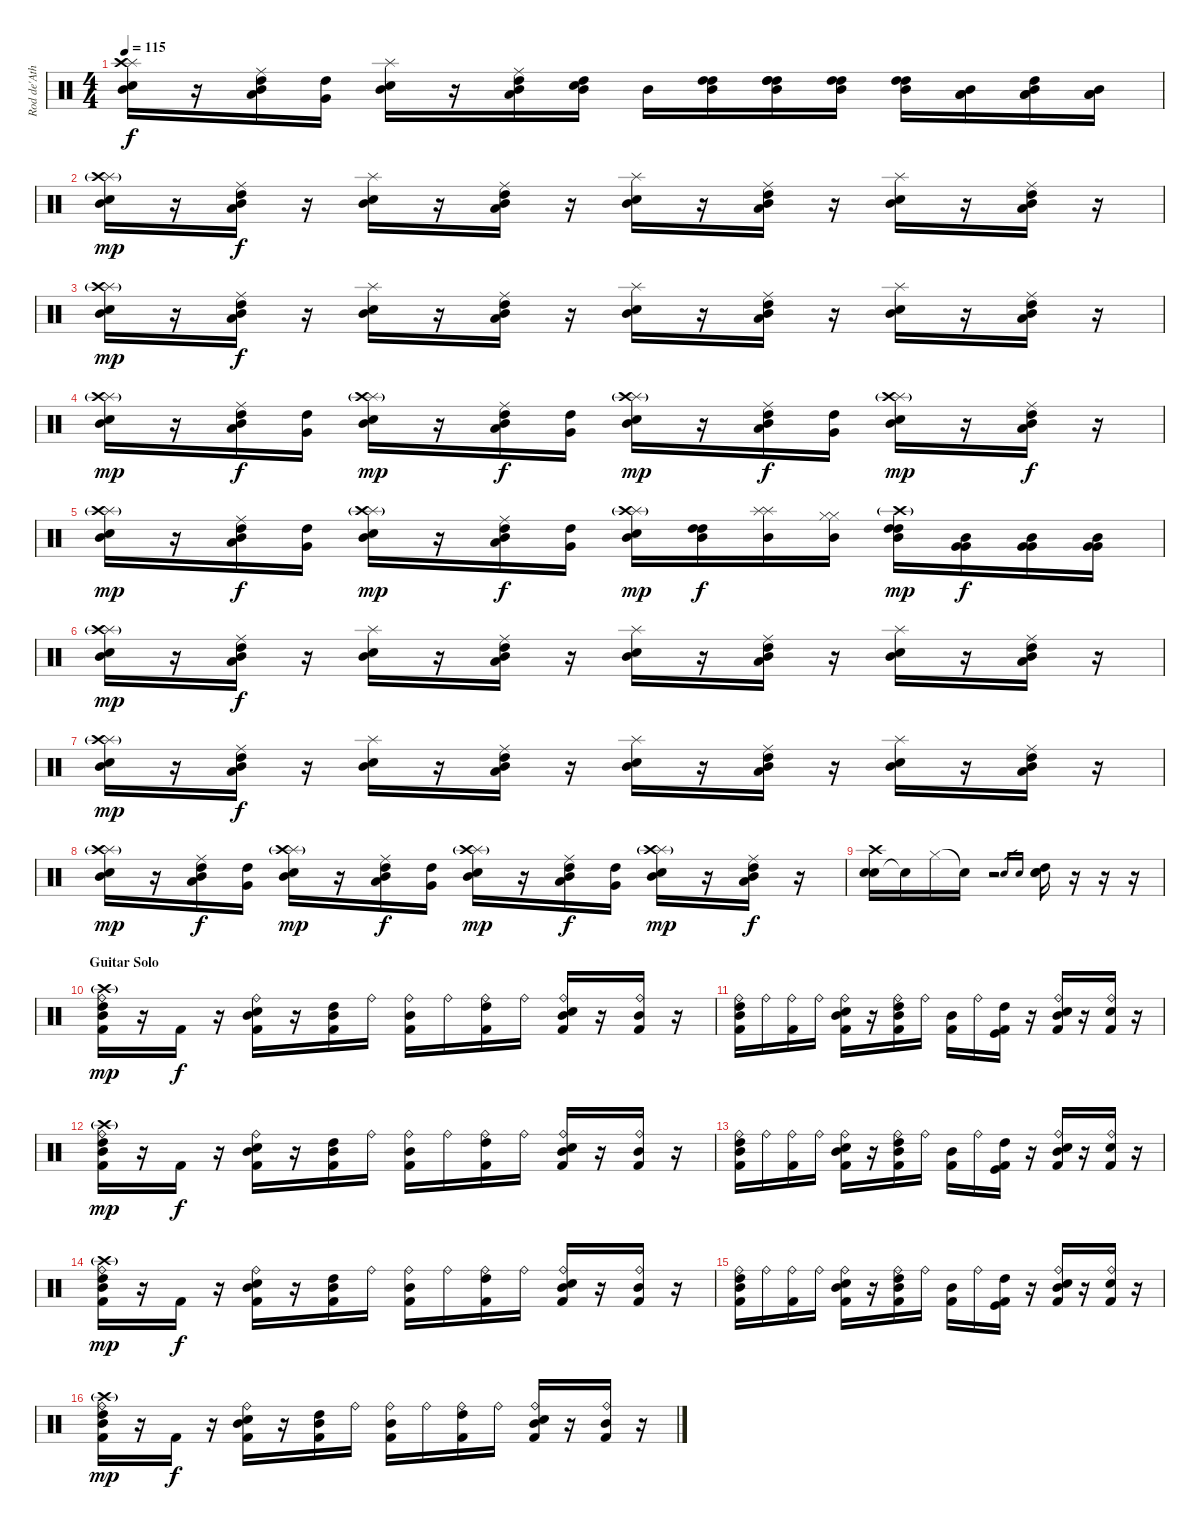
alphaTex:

\track ("Rod de'Ath" "Rod de'Ath") {instrument percussion}
\staff {score}
\articulation defaults
\ts (4 4)
\tempo 115
\clef neutral
\ks c
("Splash (hit)" "Snare (hit) 2" "Crash high (hit)" "Mid Tom (hit)").16{dy f} r.16 ("Ride (middle)" "Low Tom (hit)" "High Tom (hit)" "Mid Tom (hit)").16 ("High Tom (hit)" "Very Low Tom (hit)").16 ("Splash (hit)" "Snare (hit) 2" "Mid Tom (hit)").16 r.16 ("Ride (middle)" "Low Tom (hit)" "High Tom (hit)" "Mid Tom (hit)").16 ("Electric Snare (hit)" "High Tom (hit)" "Mid Tom (hit)").16 "Mid Tom (hit)".16 ("High Tom (hit)" "High Tom (hit)" "Mid Tom (hit)").16 ("High Tom (hit)" "High Tom (hit)" "High Tom (hit)" "Mid Tom (hit)").16 ("High Tom (hit)" "High Tom (hit)" "Mid Tom (hit)").16 ("High Tom (hit)" "High Tom (hit)" "Mid Tom (hit)").16 ("Low Tom (hit)" "Low Tom (hit)" "Mid Tom (hit)").16 ("Low Tom (hit)" "Low Tom (hit)" "High Tom (hit)" "Mid Tom (hit)").16 ("Low Tom (hit)" "Low Tom (hit)" "Mid Tom (hit)").16 |
("Splash (hit)" "Snare (hit) 2" "Crash high (hit)"{g} "Mid Tom (hit)").16{dy mp} r.16 ("Ride (middle)" "Low Tom (hit)" "High Tom (hit)" "Mid Tom (hit)").16{dy f} r.16 ("Splash (hit)" "Snare (hit) 2" "Mid Tom (hit)").16 r.16 ("Ride (middle)" "Low Tom (hit)" "High Tom (hit)" "Mid Tom (hit)").16 r.16 ("Splash (hit)" "Snare (hit) 2" "Mid Tom (hit)").16 r.16 ("Ride (middle)" "Low Tom (hit)" "High Tom (hit)" "Mid Tom (hit)").16 r.16 ("Splash (hit)" "Snare (hit) 2" "Mid Tom (hit)").16 r.16 ("Ride (middle)" "Low Tom (hit)" "High Tom (hit)" "Mid Tom (hit)").16 r.16 |
("Splash (hit)" "Snare (hit) 2" "Crash high (hit)"{g} "Mid Tom (hit)").16{dy mp} r.16 ("Ride (middle)" "Low Tom (hit)" "High Tom (hit)" "Mid Tom (hit)").16{dy f} r.16 ("Splash (hit)" "Snare (hit) 2" "Mid Tom (hit)").16 r.16 ("Ride (middle)" "Low Tom (hit)" "High Tom (hit)" "Mid Tom (hit)").16 r.16 ("Splash (hit)" "Snare (hit) 2" "Mid Tom (hit)").16 r.16 ("Ride (middle)" "Low Tom (hit)" "High Tom (hit)" "Mid Tom (hit)").16 r.16 ("Splash (hit)" "Snare (hit) 2" "Mid Tom (hit)").16 r.16 ("Ride (middle)" "Low Tom (hit)" "High Tom (hit)" "Mid Tom (hit)").16 r.16 |
("Splash (hit)" "Snare (hit) 2" "Crash high (hit)"{g} "Mid Tom (hit)").16{dy mp} r.16 ("Ride (middle)" "Low Tom (hit)" "High Tom (hit)" "Mid Tom (hit)").16{dy f} ("Very Low Tom (hit)" "High Tom (hit)").16 ("Splash (hit)" "Snare (hit) 2" "Crash high (hit)"{g} "Mid Tom (hit)").16{dy mp} r.16 ("Ride (middle)" "Low Tom (hit)" "High Tom (hit)" "Mid Tom (hit)").16{dy f} ("Very Low Tom (hit)" "High Tom (hit)").16 ("Splash (hit)" "Snare (hit) 2" "Crash high (hit)"{g} "Mid Tom (hit)").16{dy mp} r.16 ("Ride (middle)" "Low Tom (hit)" "High Tom (hit)" "Mid Tom (hit)").16{dy f} ("Very Low Tom (hit)" "High Tom (hit)").16 ("Splash (hit)" "Snare (hit) 2" "Crash high (hit)"{g} "Mid Tom (hit)").16{dy mp} r.16 ("Ride (middle)" "Low Tom (hit)" "High Tom (hit)" "Mid Tom (hit)").16{dy f} r.16 |
("Splash (hit)" "Snare (hit) 2" "Crash high (hit)"{g} "Mid Tom (hit)").16{dy mp} r.16 ("Ride (middle)" "Low Tom (hit)" "High Tom (hit)" "Mid Tom (hit)").16{dy f} ("Very Low Tom (hit)" "High Tom (hit)").16 ("Splash (hit)" "Snare (hit) 2" "Crash high (hit)"{g} "Mid Tom (hit)").16{dy mp} r.16 ("Ride (middle)" "Low Tom (hit)" "High Tom (hit)" "Mid Tom (hit)").16{dy f} ("Very Low Tom (hit)" "High Tom (hit)").16 ("Splash (hit)" "Snare (hit) 2" "Crash high (hit)"{g} "Mid Tom (hit)").16{dy mp} ("High Tom (hit)" "High Tom (hit)" "Mid Tom (hit)").16{dy f} ("Splash (hit)" "Splash (hit)" "Mid Tom (hit)").16 ("Hi-Hat (closed)" "Hi-Hat (closed)" "Mid Tom (hit)").16 ("High Tom (hit)" "High Tom (hit)" "Crash high (hit)"{g} "Mid Tom (hit)").16{dy mp} ("Very Low Tom (hit)" "Very Low Tom (hit)" "Mid Tom (hit)").16{dy f} ("Very Low Tom (hit)" "Very Low Tom (hit)" "Mid Tom (hit)").16 ("Very Low Tom (hit)" "Very Low Tom (hit)" "Mid Tom (hit)").16 |
("Splash (hit)" "Snare (hit) 2" "Crash high (hit)"{g} "Mid Tom (hit)").16{dy mp} r.16 ("Ride (middle)" "Low Tom (hit)" "High Tom (hit)" "Mid Tom (hit)").16{dy f} r.16 ("Splash (hit)" "Snare (hit) 2" "Mid Tom (hit)").16 r.16 ("Ride (middle)" "Low Tom (hit)" "High Tom (hit)" "Mid Tom (hit)").16 r.16 ("Splash (hit)" "Snare (hit) 2" "Mid Tom (hit)").16 r.16 ("Ride (middle)" "Low Tom (hit)" "High Tom (hit)" "Mid Tom (hit)").16 r.16 ("Splash (hit)" "Snare (hit) 2" "Mid Tom (hit)").16 r.16 ("Ride (middle)" "Low Tom (hit)" "High Tom (hit)" "Mid Tom (hit)").16 r.16 |
("Splash (hit)" "Snare (hit) 2" "Crash high (hit)"{g} "Mid Tom (hit)").16{dy mp} r.16 ("Ride (middle)" "Low Tom (hit)" "High Tom (hit)" "Mid Tom (hit)").16{dy f} r.16 ("Splash (hit)" "Snare (hit) 2" "Mid Tom (hit)").16 r.16 ("Ride (middle)" "Low Tom (hit)" "High Tom (hit)" "Mid Tom (hit)").16 r.16 ("Splash (hit)" "Snare (hit) 2" "Mid Tom (hit)").16 r.16 ("Ride (middle)" "Low Tom (hit)" "High Tom (hit)" "Mid Tom (hit)").16 r.16 ("Splash (hit)" "Snare (hit) 2" "Mid Tom (hit)").16 r.16 ("Ride (middle)" "Low Tom (hit)" "High Tom (hit)" "Mid Tom (hit)").16 r.16 |
("Splash (hit)" "Snare (hit) 2" "Crash high (hit)"{g} "Mid Tom (hit)").16{dy mp} r.16 ("Ride (middle)" "Low Tom (hit)" "High Tom (hit)" "Mid Tom (hit)").16{dy f} ("Very Low Tom (hit)" "High Tom (hit)").16 ("Splash (hit)" "Snare (hit) 2" "Crash high (hit)"{g} "Mid Tom (hit)").16{dy mp} r.16 ("Ride (middle)" "Low Tom (hit)" "High Tom (hit)" "Mid Tom (hit)").16{dy f} ("Very Low Tom (hit)" "High Tom (hit)").16 ("Splash (hit)" "Snare (hit) 2" "Crash high (hit)"{g} "Mid Tom (hit)").16{dy mp} r.16 ("Ride (middle)" "Low Tom (hit)" "High Tom (hit)" "Mid Tom (hit)").16{dy f} ("Very Low Tom (hit)" "High Tom (hit)").16 ("Splash (hit)" "Snare (hit) 2" "Crash high (hit)"{g} "Mid Tom (hit)").16{dy mp} r.16 ("Ride (middle)" "Low Tom (hit)" "High Tom (hit)" "Mid Tom (hit)").16{dy f} r.16 |
("Electric Snare (hit)" "Snare (hit) 2" "Crash high (hit)").16 "Snare (hit)"{t}.16 "Hi-Hat (closed)".16 "Snare (hit)"{t}.16 r.2 "Snare (hit) 2"{sl}.16{gr} "Electric Snare (hit)"{sl}.16{gr} ("Electric Snare (hit)" "Snare (hit) 2" "High Tom (hit)").16 r.16 r.16 r.16 |
\section ("" "Guitar Solo")
("Ride (bell)" "High Tom (hit)" "Mid Tom (hit)" "Kick (hit) 2" "Crash high (hit)"{g}).16{dy mp} r.16 "Kick (hit) 2".16{dy f} r.16 ("Ride (bell)" "Snare (hit) 2" "Mid Tom (hit)" "Kick (hit) 2").16 r.16 ("High Tom (hit)" "Mid Tom (hit)" "Kick (hit) 2").16 "Ride (bell)".16 ("Ride (bell)" "Mid Tom (hit)" "Kick (hit) 2").16 "Ride (bell)".16 ("Ride (bell)" "High Tom (hit)" "Kick (hit) 2").16 "Ride (bell)".16 ("Ride (bell)" "Snare (hit) 2" "Mid Tom (hit)" "Kick (hit) 2").16 r.16 ("Ride (bell)" "Mid Tom (hit)" "Kick (hit) 2").16 r.16 |
("Ride (bell)" "High Tom (hit)" "Mid Tom (hit)" "Kick (hit) 2").16 "Ride (bell)".16 ("Ride (bell)" "Kick (hit) 2").16 "Ride (bell)".16 ("Ride (bell)" "Snare (hit) 2" "Mid Tom (hit)" "Kick (hit) 2").16 r.16 ("Ride (bell)" "High Tom (hit)" "Mid Tom (hit)" "Kick (hit) 2").16 "Ride (bell)".16 ("Mid Tom (hit)" "Kick (hit) 2").16 "Ride (bell)".16 ("Kick (hit)" "High Tom (hit)" "Kick (hit) 2").16 r.16 ("Ride (bell)" "Snare (hit) 2" "Mid Tom (hit)" "Kick (hit) 2").16 r.16 ("Ride (bell)" "Electric Snare (hit)" "Kick (hit) 2").16 r.16 |
("Ride (bell)" "High Tom (hit)" "Mid Tom (hit)" "Kick (hit) 2" "Crash high (hit)"{g}).16{dy mp} r.16 "Kick (hit) 2".16{dy f} r.16 ("Ride (bell)" "Snare (hit) 2" "Mid Tom (hit)" "Kick (hit) 2").16 r.16 ("High Tom (hit)" "Mid Tom (hit)" "Kick (hit) 2").16 "Ride (bell)".16 ("Ride (bell)" "Mid Tom (hit)" "Kick (hit) 2").16 "Ride (bell)".16 ("Ride (bell)" "High Tom (hit)" "Kick (hit) 2").16 "Ride (bell)".16 ("Ride (bell)" "Snare (hit) 2" "Mid Tom (hit)" "Kick (hit) 2").16 r.16 ("Ride (bell)" "Mid Tom (hit)" "Kick (hit) 2").16 r.16 |
("Ride (bell)" "High Tom (hit)" "Mid Tom (hit)" "Kick (hit) 2").16 "Ride (bell)".16 ("Ride (bell)" "Kick (hit) 2").16 "Ride (bell)".16 ("Ride (bell)" "Snare (hit) 2" "Mid Tom (hit)" "Kick (hit) 2").16 r.16 ("Ride (bell)" "High Tom (hit)" "Mid Tom (hit)" "Kick (hit) 2").16 "Ride (bell)".16 ("Mid Tom (hit)" "Kick (hit) 2").16 "Ride (bell)".16 ("Kick (hit)" "High Tom (hit)" "Kick (hit) 2").16 r.16 ("Ride (bell)" "Snare (hit) 2" "Mid Tom (hit)" "Kick (hit) 2").16 r.16 ("Ride (bell)" "Electric Snare (hit)" "Kick (hit) 2").16 r.16 |
("Ride (bell)" "High Tom (hit)" "Mid Tom (hit)" "Kick (hit) 2" "Crash high (hit)"{g}).16{dy mp} r.16 "Kick (hit) 2".16{dy f} r.16 ("Ride (bell)" "Snare (hit) 2" "Mid Tom (hit)" "Kick (hit) 2").16 r.16 ("High Tom (hit)" "Mid Tom (hit)" "Kick (hit) 2").16 "Ride (bell)".16 ("Ride (bell)" "Mid Tom (hit)" "Kick (hit) 2").16 "Ride (bell)".16 ("Ride (bell)" "High Tom (hit)" "Kick (hit) 2").16 "Ride (bell)".16 ("Ride (bell)" "Snare (hit) 2" "Mid Tom (hit)" "Kick (hit) 2").16 r.16 ("Ride (bell)" "Mid Tom (hit)" "Kick (hit) 2").16 r.16 |
("Ride (bell)" "High Tom (hit)" "Mid Tom (hit)" "Kick (hit) 2").16 "Ride (bell)".16 ("Ride (bell)" "Kick (hit) 2").16 "Ride (bell)".16 ("Ride (bell)" "Snare (hit) 2" "Mid Tom (hit)" "Kick (hit) 2").16 r.16 ("Ride (bell)" "High Tom (hit)" "Mid Tom (hit)" "Kick (hit) 2").16 "Ride (bell)".16 ("Mid Tom (hit)" "Kick (hit) 2").16 "Ride (bell)".16 ("Kick (hit)" "High Tom (hit)" "Kick (hit) 2").16 r.16 ("Ride (bell)" "Snare (hit) 2" "Mid Tom (hit)" "Kick (hit) 2").16 r.16 ("Ride (bell)" "Electric Snare (hit)" "Kick (hit) 2").16 r.16 |
("Ride (bell)" "High Tom (hit)" "Mid Tom (hit)" "Kick (hit) 2" "Crash high (hit)"{g}).16{dy mp} r.16 "Kick (hit) 2".16{dy f} r.16 ("Ride (bell)" "Snare (hit) 2" "Mid Tom (hit)" "Kick (hit) 2").16 r.16 ("High Tom (hit)" "Mid Tom (hit)" "Kick (hit) 2").16 "Ride (bell)".16 ("Ride (bell)" "Mid Tom (hit)" "Kick (hit) 2").16 "Ride (bell)".16 ("Ride (bell)" "High Tom (hit)" "Kick (hit) 2").16 "Ride (bell)".16 ("Ride (bell)" "Snare (hit) 2" "Mid Tom (hit)" "Kick (hit) 2").16 r.16 ("Ride (bell)" "Mid Tom (hit)" "Kick (hit) 2").16 r.16
